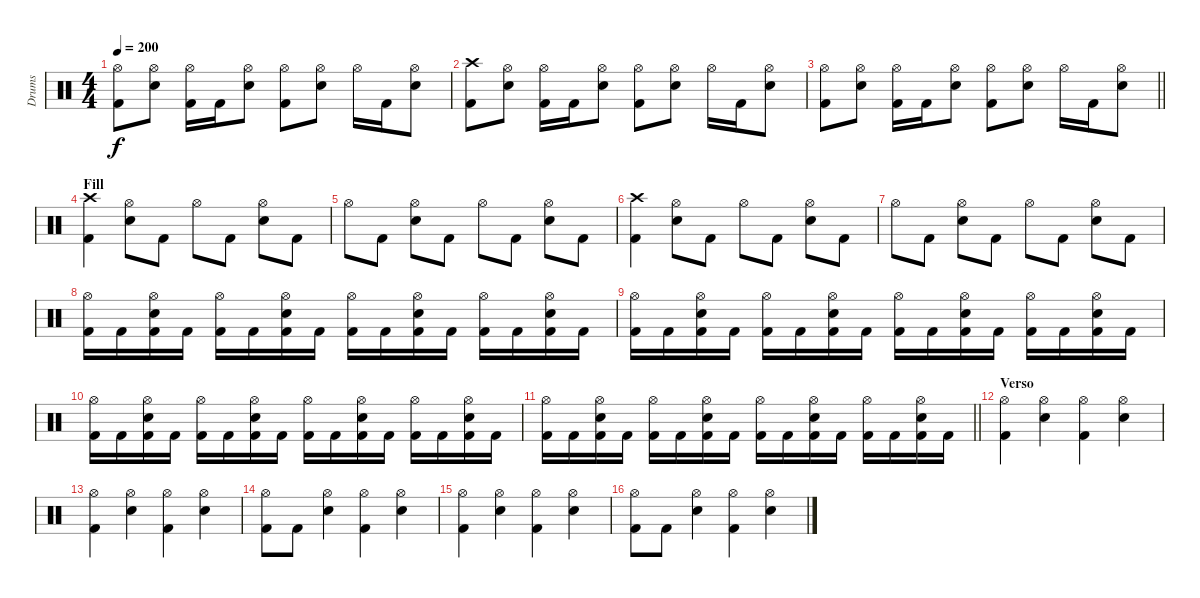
\track ("Drums" "Drums") {instrument percussion}
\staff {score}
\articulation defaults
\ts (4 4)
\tempo 200
\clef neutral
\ks c
("Hi-Hat (open)" "Kick (hit) 2").8{dy f} ("Hi-Hat (open)" "Electric Snare (hit)").8 ("Hi-Hat (open)" "Kick (hit) 2").16 "Kick (hit) 2".16 ("Hi-Hat (open)" "Electric Snare (hit)").8 ("Hi-Hat (open)" "Kick (hit) 2").8 ("Hi-Hat (open)" "Electric Snare (hit)").8 "Hi-Hat (open)".16 "Kick (hit) 2".16 ("Hi-Hat (open)" "Electric Snare (hit)").8 |
("Crash high (hit)" "Kick (hit) 2").8 ("Hi-Hat (open)" "Electric Snare (hit)").8 ("Hi-Hat (open)" "Kick (hit) 2").16 "Kick (hit) 2".16 ("Hi-Hat (open)" "Electric Snare (hit)").8 ("Hi-Hat (open)" "Kick (hit) 2").8 ("Hi-Hat (open)" "Electric Snare (hit)").8 "Hi-Hat (open)".16 "Kick (hit) 2".16 ("Hi-Hat (open)" "Electric Snare (hit)").8 |
\barLineRight lightlight
("Hi-Hat (open)" "Kick (hit) 2").8 ("Hi-Hat (open)" "Electric Snare (hit)").8 ("Hi-Hat (open)" "Kick (hit) 2").16 "Kick (hit) 2".16 ("Hi-Hat (open)" "Electric Snare (hit)").8 ("Hi-Hat (open)" "Kick (hit) 2").8 ("Hi-Hat (open)" "Electric Snare (hit)").8 "Hi-Hat (open)".16 "Kick (hit) 2".16 ("Hi-Hat (open)" "Electric Snare (hit)").8 |
\section ("" "Fill")
("Crash high (hit)" "Kick (hit) 2").4 ("Hi-Hat (open)" "Electric Snare (hit)").8 "Kick (hit) 2".8 "Hi-Hat (open)".8 "Kick (hit) 2".8 ("Hi-Hat (open)" "Electric Snare (hit)").8 "Kick (hit) 2".8 |
"Hi-Hat (open)".8 "Kick (hit) 2".8 ("Hi-Hat (open)" "Electric Snare (hit)").8 "Kick (hit) 2".8 "Hi-Hat (open)".8 "Kick (hit) 2".8 ("Hi-Hat (open)" "Electric Snare (hit)").8 "Kick (hit) 2".8 |
("Crash high (hit)" "Kick (hit) 2").4 ("Hi-Hat (open)" "Electric Snare (hit)").8 "Kick (hit) 2".8 "Hi-Hat (open)".8 "Kick (hit) 2".8 ("Hi-Hat (open)" "Electric Snare (hit)").8 "Kick (hit) 2".8 |
"Hi-Hat (open)".8 "Kick (hit) 2".8 ("Hi-Hat (open)" "Electric Snare (hit)").8 "Kick (hit) 2".8 "Hi-Hat (open)".8 "Kick (hit) 2".8 ("Hi-Hat (open)" "Electric Snare (hit)").8 "Kick (hit) 2".8 |
("Hi-Hat (open)" "Kick (hit) 2").16 "Kick (hit) 2".16 ("Hi-Hat (open)" "Electric Snare (hit)" "Kick (hit) 2").16 "Kick (hit) 2".16 ("Hi-Hat (open)" "Kick (hit) 2").16 "Kick (hit) 2".16 ("Hi-Hat (open)" "Electric Snare (hit)" "Kick (hit) 2").16 "Kick (hit) 2".16 ("Hi-Hat (open)" "Kick (hit) 2").16 "Kick (hit) 2".16 ("Hi-Hat (open)" "Electric Snare (hit)" "Kick (hit) 2").16 "Kick (hit) 2".16 ("Hi-Hat (open)" "Kick (hit) 2").16 "Kick (hit) 2".16 ("Hi-Hat (open)" "Electric Snare (hit)" "Kick (hit) 2").16 "Kick (hit) 2".16 |
("Hi-Hat (open)" "Kick (hit) 2").16 "Kick (hit) 2".16 ("Hi-Hat (open)" "Electric Snare (hit)" "Kick (hit) 2").16 "Kick (hit) 2".16 ("Hi-Hat (open)" "Kick (hit) 2").16 "Kick (hit) 2".16 ("Hi-Hat (open)" "Electric Snare (hit)" "Kick (hit) 2").16 "Kick (hit) 2".16 ("Hi-Hat (open)" "Kick (hit) 2").16 "Kick (hit) 2".16 ("Hi-Hat (open)" "Electric Snare (hit)" "Kick (hit) 2").16 "Kick (hit) 2".16 ("Hi-Hat (open)" "Kick (hit) 2").16 "Kick (hit) 2".16 ("Hi-Hat (open)" "Electric Snare (hit)" "Kick (hit) 2").16 "Kick (hit) 2".16 |
("Hi-Hat (open)" "Kick (hit) 2").16 "Kick (hit) 2".16 ("Hi-Hat (open)" "Electric Snare (hit)" "Kick (hit) 2").16 "Kick (hit) 2".16 ("Hi-Hat (open)" "Kick (hit) 2").16 "Kick (hit) 2".16 ("Hi-Hat (open)" "Electric Snare (hit)" "Kick (hit) 2").16 "Kick (hit) 2".16 ("Hi-Hat (open)" "Kick (hit) 2").16 "Kick (hit) 2".16 ("Hi-Hat (open)" "Electric Snare (hit)" "Kick (hit) 2").16 "Kick (hit) 2".16 ("Hi-Hat (open)" "Kick (hit) 2").16 "Kick (hit) 2".16 ("Hi-Hat (open)" "Electric Snare (hit)" "Kick (hit) 2").16 "Kick (hit) 2".16 |
\barLineRight lightlight
("Hi-Hat (open)" "Kick (hit) 2").16 "Kick (hit) 2".16 ("Hi-Hat (open)" "Electric Snare (hit)" "Kick (hit) 2").16 "Kick (hit) 2".16 ("Hi-Hat (open)" "Kick (hit) 2").16 "Kick (hit) 2".16 ("Hi-Hat (open)" "Electric Snare (hit)" "Kick (hit) 2").16 "Kick (hit) 2".16 ("Hi-Hat (open)" "Kick (hit) 2").16 "Kick (hit) 2".16 ("Hi-Hat (open)" "Electric Snare (hit)" "Kick (hit) 2").16 "Kick (hit) 2".16 ("Hi-Hat (open)" "Kick (hit) 2").16 "Kick (hit) 2".16 ("Hi-Hat (open)" "Electric Snare (hit)" "Kick (hit) 2").16 "Kick (hit) 2".16 |
\section ("" "Verso")
("Hi-Hat (open)" "Kick (hit) 2").4 ("Hi-Hat (open)" "Electric Snare (hit)").4 ("Hi-Hat (open)" "Kick (hit) 2").4 ("Hi-Hat (open)" "Electric Snare (hit)").4 |
("Hi-Hat (open)" "Kick (hit) 2").4 ("Hi-Hat (open)" "Electric Snare (hit)").4 ("Hi-Hat (open)" "Kick (hit) 2").4 ("Hi-Hat (open)" "Electric Snare (hit)").4 |
("Hi-Hat (open)" "Kick (hit) 2").8 "Kick (hit) 2".8 ("Hi-Hat (open)" "Electric Snare (hit)").4 ("Hi-Hat (open)" "Kick (hit) 2").4 ("Hi-Hat (open)" "Electric Snare (hit)").4 |
("Hi-Hat (open)" "Kick (hit) 2").4 ("Hi-Hat (open)" "Electric Snare (hit)").4 ("Hi-Hat (open)" "Kick (hit) 2").4 ("Hi-Hat (open)" "Electric Snare (hit)").4 |
("Hi-Hat (open)" "Kick (hit) 2").8 "Kick (hit) 2".8 ("Hi-Hat (open)" "Electric Snare (hit)").4 ("Hi-Hat (open)" "Kick (hit) 2").4 ("Hi-Hat (open)" "Electric Snare (hit)").4
